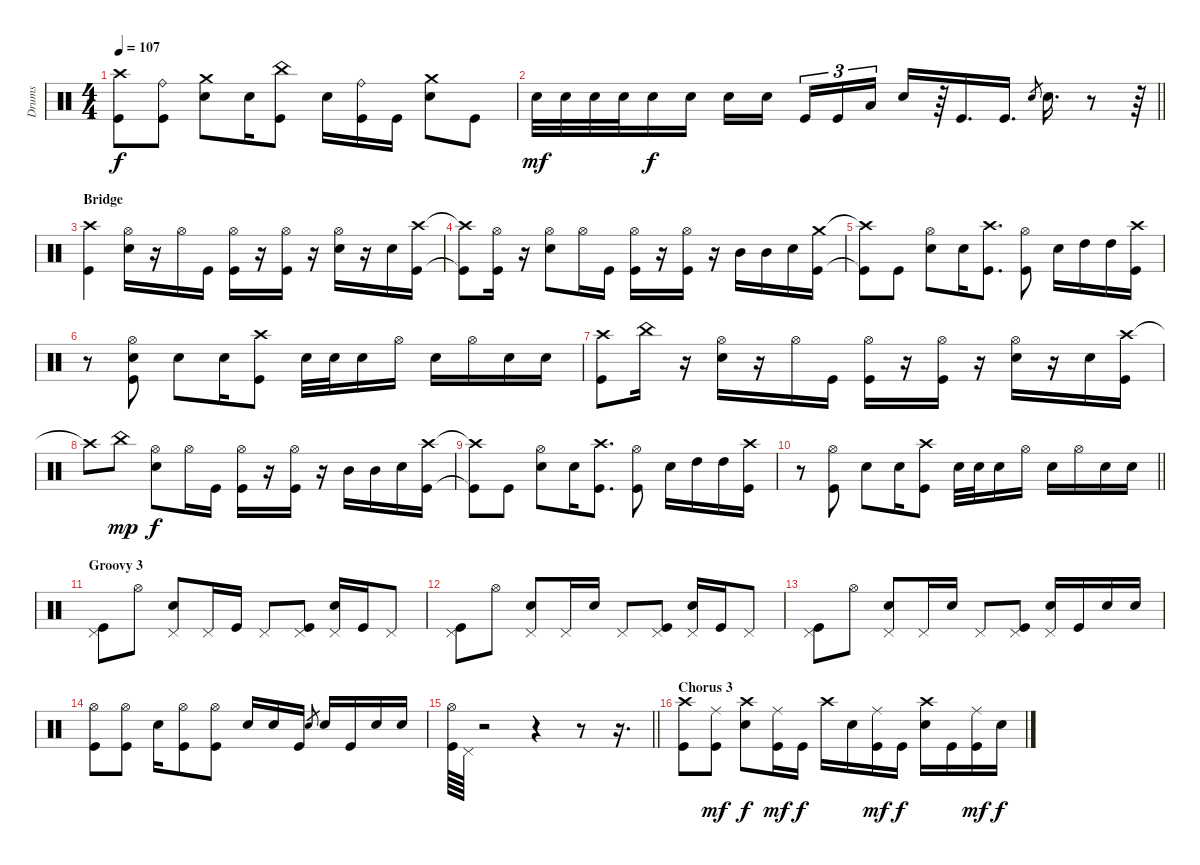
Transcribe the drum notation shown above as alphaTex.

\track ("Drums" "Drums") {instrument percussion}
\staff {score}
\articulation defaults
\ts (4 4)
\tempo 107
\clef neutral
\ks c
("Crash high (hit)" "Kick (hit)").8{dy f} ("Ride (bell)" "Kick (hit)").8 ("Crash medium (hit)" "Snare (hit) 2").8 "Snare (hit) 2".16 ("China (hit)" "Kick (hit)").8 "Snare (hit) 2".16 ("Ride (bell)" "Kick (hit)").16 "Kick (hit)".16 ("Crash medium (hit)" "Snare (hit) 2").8 "Kick (hit)".8 |
\barLineRight lightlight "Snare (hit) 2".32{dy mf} "Snare (hit) 2".32 "Snare (hit) 2".32 "Snare (hit) 2".32 "Snare (hit) 2".16{dy f} "Snare (hit) 2".16 "Snare (hit) 2".16 "Snare (hit) 2".16{beam splitsecondary} "Kick (hit)".16{tu (3 2)} "Kick (hit)".16{tu (3 2)} "Low Tom (hit)".16{tu (3 2)} "Snare (hit) 2".16
r.64 "Kick (hit)".16{d} "Kick (hit)".16{d} "Snare (hit) 2".8{gr} "Snare (hit) 2".16{d} r.8 r.64 |
\section ("" "Bridge")
("Crash high (hit)" "Kick (hit)").4 ("Hi-Hat (open)" "Snare (hit) 2").16 r.16 "Hi-Hat (open)".16 "Kick (hit)".16 ("Hi-Hat (open)" "Kick (hit)").16 r.16 ("Hi-Hat (open)" "Kick (hit)").16 r.16 ("Hi-Hat (open)" "Snare (hit) 2").16 r.16 "Snare (hit) 2".16 ("Crash high (hit)" "Kick (hit)").16 |
("Crash high (hit)"{t} "Kick (hit)"{t}).8 ("Hi-Hat (open)" "Kick (hit)").16 r.16 ("Hi-Hat (open)" "Snare (hit) 2").8 "Hi-Hat (open)".16 "Kick (hit)".16 ("Hi-Hat (open)" "Kick (hit)").16 r.16 ("Hi-Hat (open)" "Kick (hit)").16 r.16 "Mid Tom (hit)".16 "Mid Tom (hit)".16 "Snare (hit) 2".16 ("Crash medium (hit)" "Kick (hit)").16 |
("Crash high (hit)"{t} "Kick (hit)"{t}).8 "Kick (hit)".8 ("Hi-Hat (open)" "Snare (hit) 2").8 "Snare (hit) 2".16 ("Crash high (hit)" "Kick (hit)").8{d} ("Hi-Hat (open)" "Kick (hit)").8 "Snare (hit) 2".16 "High Tom (hit)".16 "High Tom (hit)".16 ("Crash high (hit)" "Kick (hit)").16 |
r.8 ("Hi-Hat (open)" "Snare (hit) 2" "Kick (hit)").8 "Snare (hit) 2".8 "Snare (hit) 2".16 ("Crash high (hit)" "Kick (hit)").8 "Snare (hit) 2".32 "Snare (hit) 2".32 "Snare (hit) 2".16 "Hi-Hat (open)".16 "Snare (hit) 2".16 "Hi-Hat (open)".16 "Snare (hit) 2".16 "Snare (hit) 2".16 |
("Crash high (hit)" "Kick (hit)").8 "China (hit)".16 r.16 ("Hi-Hat (open)" "Snare (hit) 2").16 r.16 "Hi-Hat (open)".16 "Kick (hit)".16 ("Hi-Hat (open)" "Kick (hit)").16 r.16 ("Hi-Hat (open)" "Kick (hit)").16 r.16 ("Hi-Hat (open)" "Snare (hit) 2").16 r.16 "Snare (hit) 2".16 ("Crash high (hit)" "Kick (hit)").16 |
"Crash high (hit)"{t}.8 "China (hit)".8{dy mp} ("Hi-Hat (open)" "Snare (hit) 2").8{dy f} "Hi-Hat (open)".16 "Kick (hit)".16 ("Hi-Hat (open)" "Kick (hit)").16 r.16 ("Hi-Hat (open)" "Kick (hit)").16 r.16 "Mid Tom (hit)".16 "Mid Tom (hit)".16 "Snare (hit) 2".16 ("Crash high (hit)" "Kick (hit)").16 |
("Crash high (hit)"{t} "Kick (hit)"{t}).8 "Kick (hit)".8 ("Hi-Hat (open)" "Snare (hit) 2").8 "Snare (hit) 2".16 ("Crash high (hit)" "Kick (hit)").8{d} ("Hi-Hat (open)" "Kick (hit)").8 "Snare (hit) 2".16 "High Tom (hit)".16 "High Tom (hit)".16 ("Crash high (hit)" "Kick (hit)").16 |
\barLineRight lightlight
r.8 ("Hi-Hat (open)" "Kick (hit)").8 "Snare (hit) 2".8 "Snare (hit) 2".16 ("Crash high (hit)" "Kick (hit)").8 "Snare (hit) 2".32 "Snare (hit) 2".32 "Snare (hit) 2".16 "Hi-Hat (open)".16 "Snare (hit) 2".16 "Hi-Hat (open)".16 "Snare (hit) 2".16 "Snare (hit) 2".16 |
\section ("" "Groovy 3")
("Pedal Hi-Hat (hit)" "Kick (hit)").8 "Hi-Hat (open)".8 ("Pedal Hi-Hat (hit)" "Snare (hit) 2").8 "Pedal Hi-Hat (hit)".16 "Kick (hit)".16 "Pedal Hi-Hat (hit)".8 ("Pedal Hi-Hat (hit)" "Kick (hit)").8 ("Pedal Hi-Hat (hit)" "Snare (hit) 2").16 "Kick (hit)".16 "Pedal Hi-Hat (hit)".8 |
("Pedal Hi-Hat (hit)" "Kick (hit)").8 "Hi-Hat (open)".8 ("Pedal Hi-Hat (hit)" "Snare (hit) 2").8 "Pedal Hi-Hat (hit)".16 "Snare (hit) 2".16 "Pedal Hi-Hat (hit)".8 ("Pedal Hi-Hat (hit)" "Kick (hit)").8 ("Pedal Hi-Hat (hit)" "Snare (hit) 2").16 "Kick (hit)".16 "Pedal Hi-Hat (hit)".8 |
("Pedal Hi-Hat (hit)" "Kick (hit)").8 "Hi-Hat (open)".8 ("Pedal Hi-Hat (hit)" "Snare (hit) 2").8 "Pedal Hi-Hat (hit)".16 "Snare (hit) 2".16 "Pedal Hi-Hat (hit)".8 ("Pedal Hi-Hat (hit)" "Kick (hit)").8 ("Pedal Hi-Hat (hit)" "Snare (hit) 2").16 "Kick (hit)".16 "Snare (hit) 2".16 "Snare (hit) 2".16 |
("Hi-Hat (open)" "Kick (hit)").8 ("Hi-Hat (open)" "Kick (hit)").8 "Snare (hit) 2".16 ("Hi-Hat (open)" "Kick (hit)").8 ("Hi-Hat (open)" "Kick (hit)").8 "Snare (hit) 2".16 "Snare (hit) 2".16 "Kick (hit)".16 "Snare (hit) 2".8{gr} "Snare (hit) 2".16 "Kick (hit)".16 "Snare (hit) 2".16 "Snare (hit) 2".16 |
\barLineRight lightlight
("Hi-Hat (open)" "Kick (hit)").64 "Pedal Hi-Hat (hit)".64 r.2 r.4 r.8 r.16{d} |
\section ("" "Chorus 3")
("Crash high (hit)" "Kick (hit)").8 ("Ride (middle)" "Kick (hit)").8{dy mf} ("Crash high (hit)" "Snare (hit) 2").8{dy f} ("Ride (middle)" "Kick (hit)").16{dy mf} "Kick (hit)".16{dy f} "Crash high (hit)".16 "Snare (hit) 2".16 ("Ride (middle)" "Kick (hit)").16{dy mf} "Kick (hit)".16{dy f} ("Crash high (hit)" "Snare (hit) 2").16 "Kick (hit)".16 ("Ride (middle)" "Kick (hit)").16{dy mf} "Snare (hit) 2".16{dy f}
